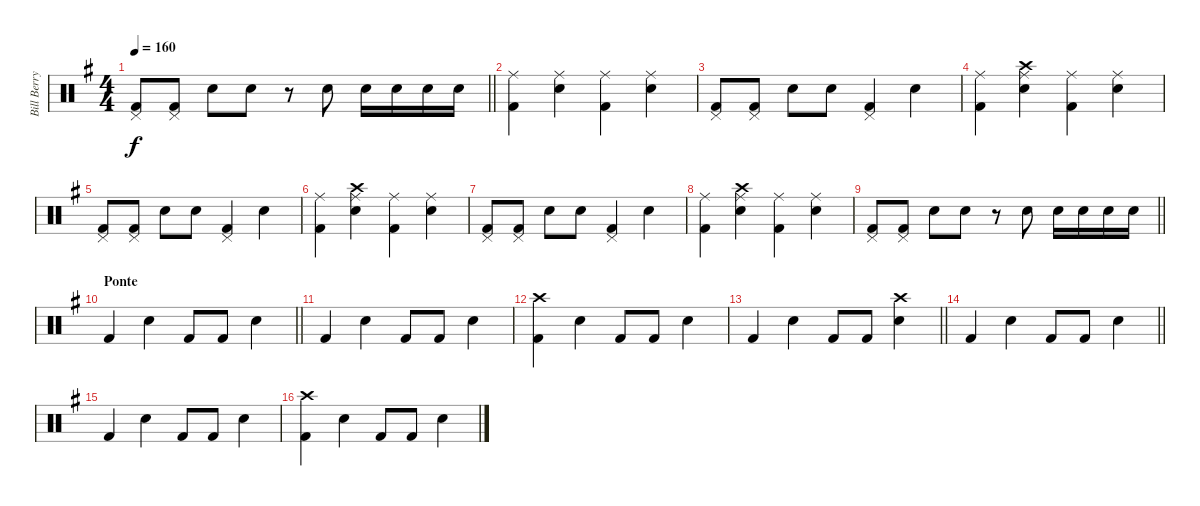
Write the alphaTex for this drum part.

\track ("Bill Berry" "Bill Berry") {instrument percussion}
\staff {score}
\articulation defaults
\ts (4 4)
\tempo 160
\clef neutral
\barLineRight lightlight
\ks g
("Kick (hit) 2" "Pedal Hi-Hat (hit)").8{dy f} ("Kick (hit) 2" "Pedal Hi-Hat (hit)").8 "Snare (hit) 2".8 "Snare (hit) 2".8 r.8 "Snare (hit) 2".8 "Snare (hit) 2".16 "Snare (hit) 2".16 "Snare (hit) 2".16 "Snare (hit) 2".16 |
("Kick (hit) 2" "Ride (middle)").4 ("Snare (hit) 2" "Ride (middle)").4 ("Kick (hit) 2" "Ride (middle)").4 ("Snare (hit) 2" "Ride (middle)").4 |
("Kick (hit) 2" "Pedal Hi-Hat (hit)").8 ("Kick (hit) 2" "Pedal Hi-Hat (hit)").8 "Snare (hit) 2".8 "Snare (hit) 2".8 ("Kick (hit) 2" "Pedal Hi-Hat (hit)").4 "Snare (hit) 2".4 |
("Kick (hit) 2" "Ride (middle)").4 ("Snare (hit) 2" "Ride (middle)" "Crash high (hit)").4 ("Kick (hit) 2" "Ride (middle)").4 ("Snare (hit) 2" "Ride (middle)").4 |
("Kick (hit) 2" "Pedal Hi-Hat (hit)").8 ("Kick (hit) 2" "Pedal Hi-Hat (hit)").8 "Snare (hit) 2".8 "Snare (hit) 2".8 ("Kick (hit) 2" "Pedal Hi-Hat (hit)").4 "Snare (hit) 2".4 |
("Kick (hit) 2" "Ride (middle)").4 ("Snare (hit) 2" "Ride (middle)" "Crash high (hit)").4 ("Kick (hit) 2" "Ride (middle)").4 ("Snare (hit) 2" "Ride (middle)").4 |
("Kick (hit) 2" "Pedal Hi-Hat (hit)").8 ("Kick (hit) 2" "Pedal Hi-Hat (hit)").8 "Snare (hit) 2".8 "Snare (hit) 2".8 ("Kick (hit) 2" "Pedal Hi-Hat (hit)").4 "Snare (hit) 2".4 |
("Kick (hit) 2" "Ride (middle)").4 ("Snare (hit) 2" "Ride (middle)" "Crash high (hit)").4 ("Kick (hit) 2" "Ride (middle)").4 ("Snare (hit) 2" "Ride (middle)").4 |
\barLineRight lightlight
("Kick (hit) 2" "Pedal Hi-Hat (hit)").8 ("Kick (hit) 2" "Pedal Hi-Hat (hit)").8 "Snare (hit) 2".8 "Snare (hit) 2".8 r.8 "Snare (hit) 2".8 "Snare (hit) 2".16 "Snare (hit) 2".16 "Snare (hit) 2".16 "Snare (hit) 2".16 |
\section ("" "Ponte")
\barLineRight lightlight "Kick (hit) 2".4 "Snare (hit) 2".4 "Kick (hit) 2".8 "Kick (hit) 2".8 "Snare (hit) 2".4
|
\section ("" "")
"Kick (hit) 2".4 "Snare (hit) 2".4 "Kick (hit) 2".8 "Kick (hit) 2".8 "Snare (hit) 2".4 |
("Kick (hit) 2" "Crash high (hit)").4 "Snare (hit) 2".4 "Kick (hit) 2".8 "Kick (hit) 2".8 "Snare (hit) 2".4 |
\barLineRight lightlight "Kick (hit) 2".4 "Snare (hit) 2".4 "Kick (hit) 2".8 "Kick (hit) 2".8
("Snare (hit) 2" "Crash high (hit)").4 |
\barLineRight lightlight "Kick (hit) 2".4 "Snare (hit) 2".4 "Kick (hit) 2".8 "Kick (hit) 2".8 "Snare (hit) 2".4
|
"Kick (hit) 2".4 "Snare (hit) 2".4 "Kick (hit) 2".8 "Kick (hit) 2".8 "Snare (hit) 2".4 |
("Kick (hit) 2" "Crash high (hit)").4 "Snare (hit) 2".4 "Kick (hit) 2".8 "Kick (hit) 2".8 "Snare (hit) 2".4
